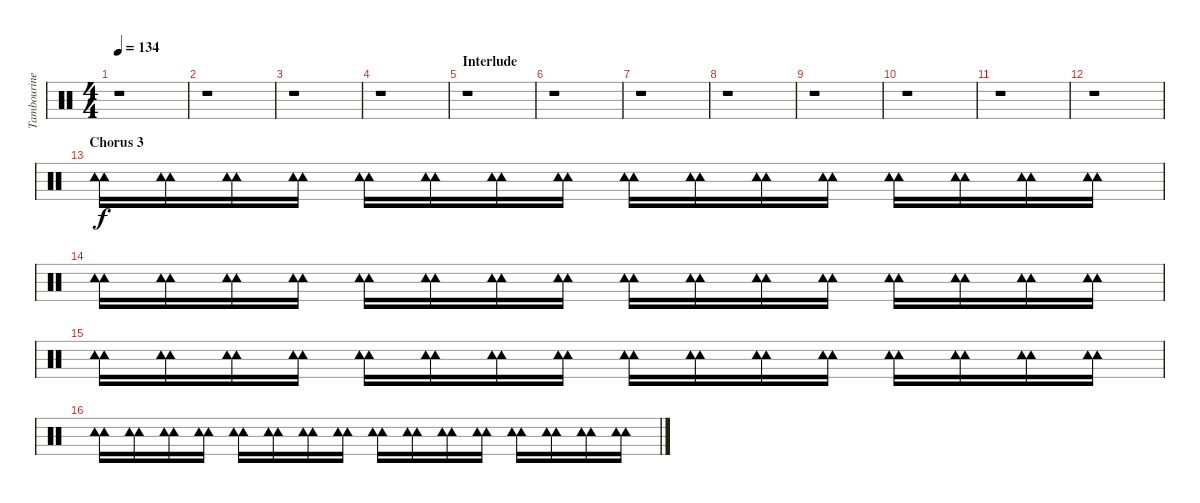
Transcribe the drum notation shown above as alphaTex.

\track ("Tambourine" "Tambourine") {instrument percussion}
\staff {score}
\articulation defaults
\ts (4 4)
\tempo 134
\clef neutral
\ks c
r.1{dy f} |
r.1 |
r.1 |
r.1 |
\section ("" "Interlude")
r.1 |
r.1 |
r.1 |
r.1 |
r.1 |
r.1 |
r.1 |
r.1 |
\section ("" "Chorus 3")
("Tambourine (hit)" "Tambourine (hit)").16 ("Tambourine (hit)" "Tambourine (hit)").16 ("Tambourine (hit)" "Tambourine (hit)").16 ("Tambourine (hit)" "Tambourine (hit)").16 ("Tambourine (hit)" "Tambourine (hit)").16 ("Tambourine (hit)" "Tambourine (hit)").16 ("Tambourine (hit)" "Tambourine (hit)").16 ("Tambourine (hit)" "Tambourine (hit)").16 ("Tambourine (hit)" "Tambourine (hit)").16 ("Tambourine (hit)" "Tambourine (hit)").16 ("Tambourine (hit)" "Tambourine (hit)").16 ("Tambourine (hit)" "Tambourine (hit)").16 ("Tambourine (hit)" "Tambourine (hit)").16 ("Tambourine (hit)" "Tambourine (hit)").16 ("Tambourine (hit)" "Tambourine (hit)").16 ("Tambourine (hit)" "Tambourine (hit)").16 |
("Tambourine (hit)" "Tambourine (hit)").16 ("Tambourine (hit)" "Tambourine (hit)").16 ("Tambourine (hit)" "Tambourine (hit)").16 ("Tambourine (hit)" "Tambourine (hit)").16 ("Tambourine (hit)" "Tambourine (hit)").16 ("Tambourine (hit)" "Tambourine (hit)").16 ("Tambourine (hit)" "Tambourine (hit)").16 ("Tambourine (hit)" "Tambourine (hit)").16 ("Tambourine (hit)" "Tambourine (hit)").16 ("Tambourine (hit)" "Tambourine (hit)").16 ("Tambourine (hit)" "Tambourine (hit)").16 ("Tambourine (hit)" "Tambourine (hit)").16 ("Tambourine (hit)" "Tambourine (hit)").16 ("Tambourine (hit)" "Tambourine (hit)").16 ("Tambourine (hit)" "Tambourine (hit)").16 ("Tambourine (hit)" "Tambourine (hit)").16 |
("Tambourine (hit)" "Tambourine (hit)").16 ("Tambourine (hit)" "Tambourine (hit)").16 ("Tambourine (hit)" "Tambourine (hit)").16 ("Tambourine (hit)" "Tambourine (hit)").16 ("Tambourine (hit)" "Tambourine (hit)").16 ("Tambourine (hit)" "Tambourine (hit)").16 ("Tambourine (hit)" "Tambourine (hit)").16 ("Tambourine (hit)" "Tambourine (hit)").16 ("Tambourine (hit)" "Tambourine (hit)").16 ("Tambourine (hit)" "Tambourine (hit)").16 ("Tambourine (hit)" "Tambourine (hit)").16 ("Tambourine (hit)" "Tambourine (hit)").16 ("Tambourine (hit)" "Tambourine (hit)").16 ("Tambourine (hit)" "Tambourine (hit)").16 ("Tambourine (hit)" "Tambourine (hit)").16 ("Tambourine (hit)" "Tambourine (hit)").16 |
("Tambourine (hit)" "Tambourine (hit)").16 ("Tambourine (hit)" "Tambourine (hit)").16 ("Tambourine (hit)" "Tambourine (hit)").16 ("Tambourine (hit)" "Tambourine (hit)").16 ("Tambourine (hit)" "Tambourine (hit)").16 ("Tambourine (hit)" "Tambourine (hit)").16 ("Tambourine (hit)" "Tambourine (hit)").16 ("Tambourine (hit)" "Tambourine (hit)").16 ("Tambourine (hit)" "Tambourine (hit)").16 ("Tambourine (hit)" "Tambourine (hit)").16 ("Tambourine (hit)" "Tambourine (hit)").16 ("Tambourine (hit)" "Tambourine (hit)").16 ("Tambourine (hit)" "Tambourine (hit)").16 ("Tambourine (hit)" "Tambourine (hit)").16 ("Tambourine (hit)" "Tambourine (hit)").16 ("Tambourine (hit)" "Tambourine (hit)").16
